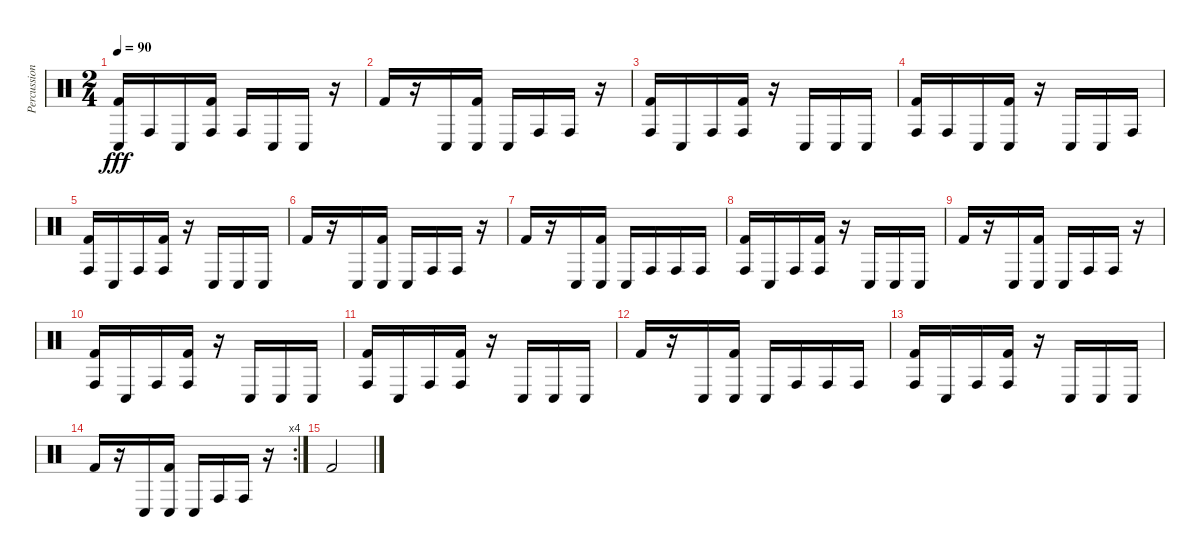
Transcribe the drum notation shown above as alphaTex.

\track ("Percussions" "Percussion") {instrument percussion}
\staff {score}
\articulation defaults
\ts (2 4)
\tempo 90
\clef neutral
\ks c
("Kick (hit) 2" "Conga low (hit)").16{dy fff} "Conga high (hit)".16 "Conga low (hit)".16 ("Kick (hit) 2" "Conga high (hit)").16 "Conga high (hit)".16 "Conga low (hit)".16 "Conga low (hit)".16 r.16 |
"Kick (hit) 2".16 r.16 "Conga low (hit)".16 ("Kick (hit) 2" "Conga low (hit)").16 "Conga low (hit)".16 "Conga high (hit)".16 "Conga high (hit)".16 r.16 |
("Kick (hit) 2" "Conga high (hit)").16 "Conga low (hit)".16 "Conga high (hit)".16 ("Conga high (hit)" "Kick (hit) 2").16 r.16 "Conga low (hit)".16 "Conga low (hit)".16 "Conga low (hit)".16 |
("Kick (hit) 2" "Conga high (hit)").16 "Conga high (hit)".16 "Conga low (hit)".16 ("Kick (hit) 2" "Conga low (hit)").16 r.16 "Conga low (hit)".16 "Conga low (hit)".16 "Conga high (hit)".16 |
("Kick (hit) 2" "Conga high (hit)").16 "Conga low (hit)".16 "Conga high (hit)".16 ("Conga high (hit)" "Kick (hit) 2").16 r.16 "Conga low (hit)".16 "Conga low (hit)".16 "Conga low (hit)".16 |
"Kick (hit) 2".16 r.16 "Conga low (hit)".16 ("Kick (hit) 2" "Conga low (hit)").16 "Conga low (hit)".16 "Conga high (hit)".16 "Conga high (hit)".16 r.16 |
"Kick (hit) 2".16 r.16 "Conga low (hit)".16 ("Kick (hit) 2" "Conga low (hit)").16 "Conga low (hit)".16 "Conga high (hit)".16 "Conga high (hit)".16 "Conga high (hit)".16 |
("Kick (hit) 2" "Conga high (hit)").16 "Conga low (hit)".16 "Conga high (hit)".16 ("Conga high (hit)" "Kick (hit) 2").16 r.16 "Conga low (hit)".16 "Conga low (hit)".16 "Conga low (hit)".16 |
"Kick (hit) 2".16 r.16 "Conga low (hit)".16 ("Kick (hit) 2" "Conga low (hit)").16 "Conga low (hit)".16 "Conga high (hit)".16 "Conga high (hit)".16 r.16 |
("Kick (hit) 2" "Conga high (hit)").16 "Conga low (hit)".16 "Conga high (hit)".16 ("Conga high (hit)" "Kick (hit) 2").16 r.16 "Conga low (hit)".16 "Conga low (hit)".16 "Conga low (hit)".16 |
("Kick (hit) 2" "Conga high (hit)").16 "Conga low (hit)".16 "Conga high (hit)".16 ("Conga high (hit)" "Kick (hit) 2").16 r.16 "Conga low (hit)".16 "Conga low (hit)".16 "Conga low (hit)".16 |
"Kick (hit) 2".16 r.16 "Conga low (hit)".16 ("Kick (hit) 2" "Conga low (hit)").16 "Conga low (hit)".16 "Conga high (hit)".16 "Conga high (hit)".16 "Conga high (hit)".16 |
("Kick (hit) 2" "Conga high (hit)").16 "Conga low (hit)".16 "Conga high (hit)".16 ("Conga high (hit)" "Kick (hit) 2").16 r.16 "Conga low (hit)".16 "Conga low (hit)".16 "Conga low (hit)".16 |
\rc 4 "Kick (hit) 2".16
r.16 "Conga low (hit)".16 ("Kick (hit) 2" "Conga low (hit)").16 "Conga low (hit)".16 "Conga high (hit)".16 "Conga high (hit)".16 r.16 |
"Kick (hit) 2".2
